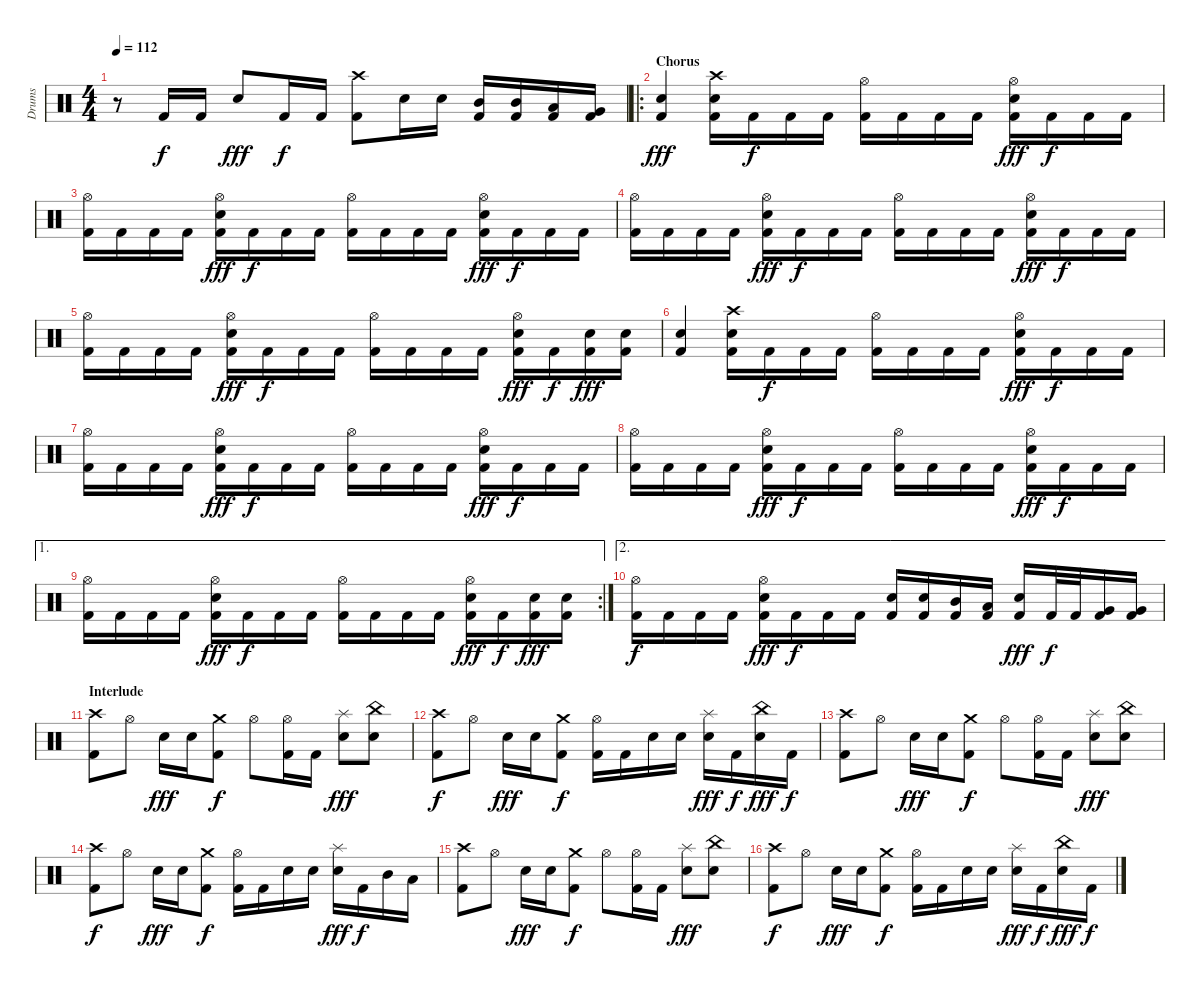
\track ("Drums" "Drums") {instrument percussion}
\staff {score}
\articulation defaults
\ts (4 4)
\tempo 112
\clef neutral
\ks c
r.8{dy f} "Kick (hit) 2".16 "Kick (hit) 2".16 "Snare (hit) 2".8{dy fff} "Kick (hit) 2".16{dy f} "Kick (hit) 2".16 ("Crash high (hit)" "Kick (hit) 2").8 "Snare (hit) 2".16 "Snare (hit) 2".16 ("Mid Tom (hit)" "Kick (hit) 2").16 ("Mid Tom (hit)" "Kick (hit) 2").16 ("Low Tom (hit)" "Kick (hit) 2").16 ("Very Low Tom (hit)" "Kick (hit) 2").16 |
\ro
\section ("" "Chorus")
("Snare (hit) 2" "Kick (hit) 2").4{dy fff} ("Crash high (hit)" "Snare (hit) 2" "Kick (hit) 2").16 "Kick (hit) 2".16{dy f} "Kick (hit) 2".16 "Kick (hit) 2".16 ("Hi-Hat (open)" "Kick (hit) 2").16 "Kick (hit) 2".16 "Kick (hit) 2".16 "Kick (hit) 2".16 ("Hi-Hat (open)" "Snare (hit) 2" "Kick (hit) 2").16{dy fff} "Kick (hit) 2".16{dy f} "Kick (hit) 2".16 "Kick (hit) 2".16 |
("Hi-Hat (open)" "Kick (hit) 2").16 "Kick (hit) 2".16 "Kick (hit) 2".16 "Kick (hit) 2".16 ("Hi-Hat (open)" "Snare (hit) 2" "Kick (hit) 2").16{dy fff} "Kick (hit) 2".16{dy f} "Kick (hit) 2".16 "Kick (hit) 2".16 ("Hi-Hat (open)" "Kick (hit) 2").16 "Kick (hit) 2".16 "Kick (hit) 2".16 "Kick (hit) 2".16 ("Hi-Hat (open)" "Snare (hit) 2" "Kick (hit) 2").16{dy fff} "Kick (hit) 2".16{dy f} "Kick (hit) 2".16 "Kick (hit) 2".16 |
("Hi-Hat (open)" "Kick (hit) 2").16 "Kick (hit) 2".16 "Kick (hit) 2".16 "Kick (hit) 2".16 ("Hi-Hat (open)" "Snare (hit) 2" "Kick (hit) 2").16{dy fff} "Kick (hit) 2".16{dy f} "Kick (hit) 2".16 "Kick (hit) 2".16 ("Hi-Hat (open)" "Kick (hit) 2").16 "Kick (hit) 2".16 "Kick (hit) 2".16 "Kick (hit) 2".16 ("Hi-Hat (open)" "Snare (hit) 2" "Kick (hit) 2").16{dy fff} "Kick (hit) 2".16{dy f} "Kick (hit) 2".16 "Kick (hit) 2".16 |
("Hi-Hat (open)" "Kick (hit) 2").16 "Kick (hit) 2".16 "Kick (hit) 2".16 "Kick (hit) 2".16 ("Hi-Hat (open)" "Snare (hit) 2" "Kick (hit) 2").16{dy fff} "Kick (hit) 2".16{dy f} "Kick (hit) 2".16 "Kick (hit) 2".16 ("Hi-Hat (open)" "Kick (hit) 2").16 "Kick (hit) 2".16 "Kick (hit) 2".16 "Kick (hit) 2".16 ("Hi-Hat (open)" "Snare (hit) 2" "Kick (hit) 2").16{dy fff} "Kick (hit) 2".16{dy f} ("Snare (hit) 2" "Kick (hit) 2").16{dy fff} ("Snare (hit) 2" "Kick (hit) 2").16 |
("Snare (hit) 2" "Kick (hit) 2").4 ("Crash high (hit)" "Snare (hit) 2" "Kick (hit) 2").16 "Kick (hit) 2".16{dy f} "Kick (hit) 2".16 "Kick (hit) 2".16 ("Hi-Hat (open)" "Kick (hit) 2").16 "Kick (hit) 2".16 "Kick (hit) 2".16 "Kick (hit) 2".16 ("Hi-Hat (open)" "Snare (hit) 2" "Kick (hit) 2").16{dy fff} "Kick (hit) 2".16{dy f} "Kick (hit) 2".16 "Kick (hit) 2".16 |
("Hi-Hat (open)" "Kick (hit) 2").16 "Kick (hit) 2".16 "Kick (hit) 2".16 "Kick (hit) 2".16 ("Hi-Hat (open)" "Snare (hit) 2" "Kick (hit) 2").16{dy fff} "Kick (hit) 2".16{dy f} "Kick (hit) 2".16 "Kick (hit) 2".16 ("Hi-Hat (open)" "Kick (hit) 2").16 "Kick (hit) 2".16 "Kick (hit) 2".16 "Kick (hit) 2".16 ("Hi-Hat (open)" "Snare (hit) 2" "Kick (hit) 2").16{dy fff} "Kick (hit) 2".16{dy f} "Kick (hit) 2".16 "Kick (hit) 2".16 |
("Hi-Hat (open)" "Kick (hit) 2").16 "Kick (hit) 2".16 "Kick (hit) 2".16 "Kick (hit) 2".16 ("Hi-Hat (open)" "Snare (hit) 2" "Kick (hit) 2").16{dy fff} "Kick (hit) 2".16{dy f} "Kick (hit) 2".16 "Kick (hit) 2".16 ("Hi-Hat (open)" "Kick (hit) 2").16 "Kick (hit) 2".16 "Kick (hit) 2".16 "Kick (hit) 2".16 ("Hi-Hat (open)" "Snare (hit) 2" "Kick (hit) 2").16{dy fff} "Kick (hit) 2".16{dy f} "Kick (hit) 2".16 "Kick (hit) 2".16 |
\ae 1
\rc 2
("Hi-Hat (open)" "Kick (hit) 2").16 "Kick (hit) 2".16 "Kick (hit) 2".16 "Kick (hit) 2".16 ("Hi-Hat (open)" "Snare (hit) 2" "Kick (hit) 2").16{dy fff} "Kick (hit) 2".16{dy f} "Kick (hit) 2".16 "Kick (hit) 2".16 ("Hi-Hat (open)" "Kick (hit) 2").16 "Kick (hit) 2".16 "Kick (hit) 2".16 "Kick (hit) 2".16 ("Hi-Hat (open)" "Snare (hit) 2" "Kick (hit) 2").16{dy fff} "Kick (hit) 2".16{dy f} ("Snare (hit) 2" "Kick (hit) 2").16{dy fff} ("Snare (hit) 2" "Kick (hit) 2").16 |
\ae 2
("Hi-Hat (open)" "Kick (hit) 2").16{dy f} "Kick (hit) 2".16 "Kick (hit) 2".16 "Kick (hit) 2".16 ("Hi-Hat (open)" "Snare (hit) 2" "Kick (hit) 2").16{dy fff} "Kick (hit) 2".16{dy f} "Kick (hit) 2".16 "Kick (hit) 2".16 ("Snare (hit) 2" "Kick (hit) 2").16 ("Snare (hit) 2" "Kick (hit) 2").16 ("Mid Tom (hit)" "Kick (hit) 2").16 ("Low Tom (hit)" "Kick (hit) 2").16 ("Snare (hit) 2" "Kick (hit) 2").16{dy fff} "Kick (hit) 2".32{dy f} "Kick (hit) 2".32 ("Very Low Tom (hit)" "Kick (hit) 2").16 ("Very Low Tom (hit)" "Kick (hit) 2").16 |
\section ("" "Interlude")
("Crash high (hit)" "Kick (hit) 2").8 "Hi-Hat (open)".8 "Snare (hit) 2".16{dy fff} "Snare (hit) 2".16 ("Crash medium (hit)" "Kick (hit) 2").8{dy f} "Hi-Hat (open)".8 ("Hi-Hat (open)" "Kick (hit) 2").16 "Kick (hit) 2".16 ("Splash (hit)" "Snare (hit) 2").8{dy fff} ("China (hit)" "Snare (hit) 2").8 |
("Crash high (hit)" "Kick (hit) 2").8{dy f} "Hi-Hat (open)".8 "Snare (hit) 2".16{dy fff} "Snare (hit) 2".16 ("Crash medium (hit)" "Kick (hit) 2").8{dy f} ("Hi-Hat (open)" "Kick (hit) 2").16 "Kick (hit) 2".16 "Snare (hit) 2".16 "Snare (hit) 2".16 ("Splash (hit)" "Snare (hit) 2").16{dy fff} "Kick (hit) 2".16{dy f} ("China (hit)" "Snare (hit) 2").16{dy fff} "Kick (hit) 2".16{dy f} |
("Crash high (hit)" "Kick (hit) 2").8 "Hi-Hat (open)".8 "Snare (hit) 2".16{dy fff} "Snare (hit) 2".16 ("Crash medium (hit)" "Kick (hit) 2").8{dy f} "Hi-Hat (open)".8 ("Hi-Hat (open)" "Kick (hit) 2").16 "Kick (hit) 2".16 ("Splash (hit)" "Snare (hit) 2").8{dy fff} ("China (hit)" "Snare (hit) 2").8 |
("Crash high (hit)" "Kick (hit) 2").8{dy f} "Hi-Hat (open)".8 "Snare (hit) 2".16{dy fff} "Snare (hit) 2".16 ("Crash medium (hit)" "Kick (hit) 2").8{dy f} ("Hi-Hat (open)" "Kick (hit) 2").16 "Kick (hit) 2".16 "Snare (hit) 2".16 "Snare (hit) 2".16 ("Splash (hit)" "Snare (hit) 2").16{dy fff} "Kick (hit) 2".16{dy f} "Mid Tom (hit)".16 "Low Tom (hit)".16 |
("Crash high (hit)" "Kick (hit) 2").8 "Hi-Hat (open)".8 "Snare (hit) 2".16{dy fff} "Snare (hit) 2".16 ("Crash medium (hit)" "Kick (hit) 2").8{dy f} "Hi-Hat (open)".8 ("Hi-Hat (open)" "Kick (hit) 2").16 "Kick (hit) 2".16 ("Splash (hit)" "Snare (hit) 2").8{dy fff} ("China (hit)" "Snare (hit) 2").8 |
("Crash high (hit)" "Kick (hit) 2").8{dy f} "Hi-Hat (open)".8 "Snare (hit) 2".16{dy fff} "Snare (hit) 2".16 ("Crash medium (hit)" "Kick (hit) 2").8{dy f} ("Hi-Hat (open)" "Kick (hit) 2").16 "Kick (hit) 2".16 "Snare (hit) 2".16 "Snare (hit) 2".16 ("Splash (hit)" "Snare (hit) 2").16{dy fff} "Kick (hit) 2".16{dy f} ("China (hit)" "Snare (hit) 2").16{dy fff} "Kick (hit) 2".16{dy f}
